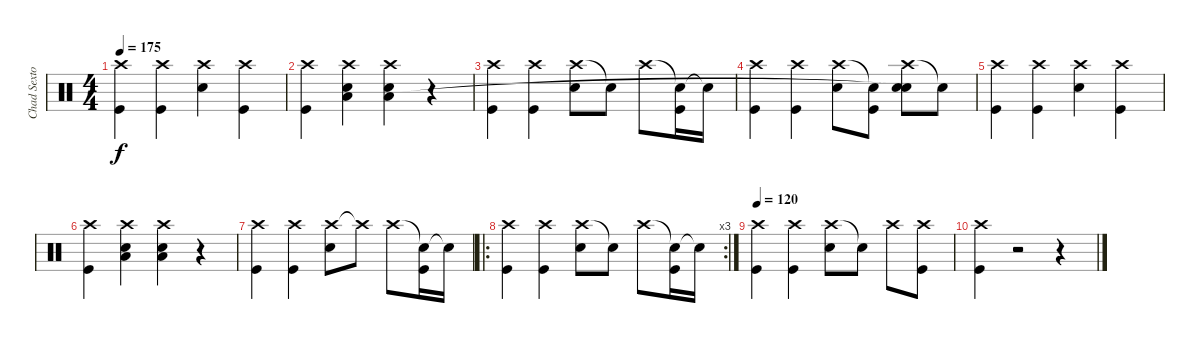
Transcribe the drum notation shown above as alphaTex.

\track ("Chad Sexton" "Chad Sexto") {instrument percussion}
\staff {score}
\articulation defaults
\ts (4 4)
\tempo 175
\clef neutral
\ks c
("Crash high (hit)" "Kick (hit)").4{dy f} ("Crash high (hit)" "Kick (hit)").4 ("Crash high (hit)" "Snare (hit) 2").4 ("Crash high (hit)" "Kick (hit)").4 |
("Crash high (hit)" "Kick (hit)").4 ("Crash high (hit)" "Snare (hit) 2" "Low Tom (hit)").4 ("Crash high (hit)" "Snare (hit) 2" "Low Tom (hit)").4 r.4 |
("Crash high (hit)" "Kick (hit)").4 ("Crash high (hit)" "Kick (hit)").4 ("Crash high (hit)" "Snare (hit) 2").8 "Snare (hit)"{t}.8 "Crash high (hit)".8 ("Snare (hit)"{t} "Kick (hit)").16 "Snare (hit)"{t}.16 |
("Crash high (hit)" "Kick (hit)").4 ("Crash high (hit)" "Kick (hit)").4 ("Crash high (hit)" "Snare (hit) 2").8 ("Snare (hit)"{t} "Kick (hit)").8 ("Crash high (hit)" "Snare (hit) 2" "Snare (hit)"{t}).8 "Snare (hit)"{t}.8 |
("Crash high (hit)" "Kick (hit)").4 ("Crash high (hit)" "Kick (hit)").4 ("Crash high (hit)" "Snare (hit) 2").4 ("Crash high (hit)" "Kick (hit)").4 |
("Crash high (hit)" "Kick (hit)").4 ("Crash high (hit)" "Snare (hit) 2" "Low Tom (hit)").4 ("Crash high (hit)" "Snare (hit) 2" "Low Tom (hit)").4 r.4 |
("Crash high (hit)" "Kick (hit)").4 ("Crash high (hit)" "Kick (hit)").4 ("Crash high (hit)" "Snare (hit) 2").8 "Crash high (hit)"{t}.8 "Crash high (hit)".8 ("Snare (hit)"{t} "Kick (hit)").16 "Snare (hit)"{t}.16 |
\ro
\rc 3
("Crash high (hit)" "Kick (hit)").4 ("Crash high (hit)" "Kick (hit)").4 ("Crash high (hit)" "Snare (hit) 2").8 "Snare (hit)"{t}.8 "Crash high (hit)".8 ("Snare (hit)"{t} "Kick (hit)").16 "Snare (hit)"{t}.16 |
\tempo 120
("Crash high (hit)" "Kick (hit)").4 ("Crash high (hit)" "Kick (hit)").4 ("Crash high (hit)" "Snare (hit) 2").8 "Snare (hit)"{t}.8 "Crash high (hit)".8 ("Crash high (hit)" "Kick (hit)").8 |
("Crash high (hit)" "Kick (hit)").4 r.2 r.4
